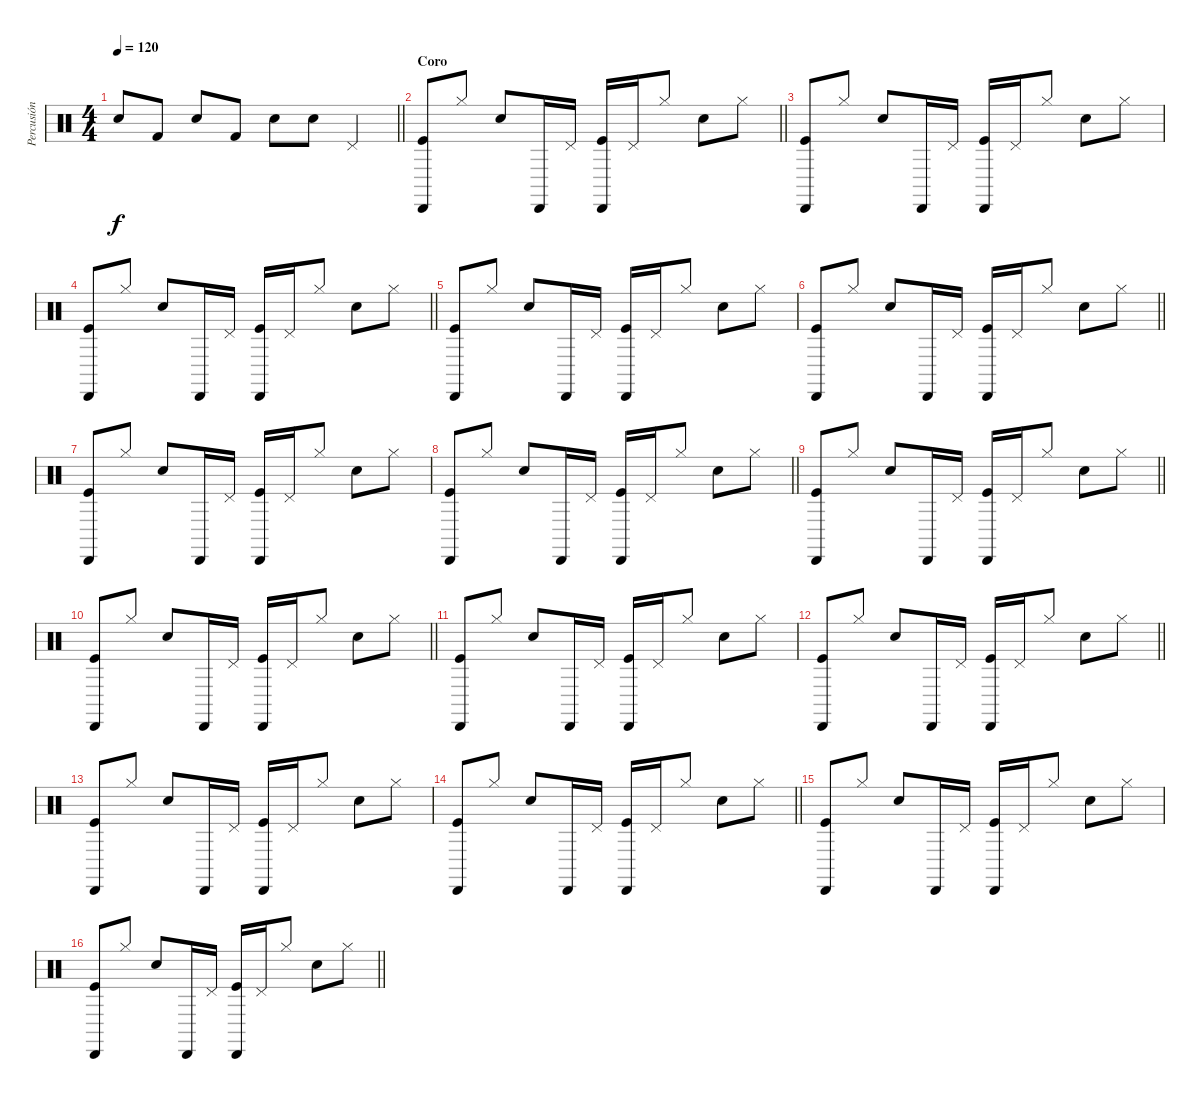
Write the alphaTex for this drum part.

\track ("Percusión" "Percusión") {instrument percussion}
\staff {score}
\articulation defaults
\ts (4 4)
\tempo 120
\clef neutral
\barLineRight lightlight
\ks c "Electric Snare (hit)".8{dy f} "Kick (hit) 2".8 "Electric Snare (hit)".8 "Kick (hit) 2".8 "Electric Snare (hit)".8 "Electric Snare (hit)".8 "Pedal Hi-Hat (hit)".4
|
\section ("" "Coro")
\barLineRight lightlight
("Kick (hit)" "Cabasa (hit)").8 "Hi-Hat (closed)".8 "Electric Snare (hit)".8 "Cabasa (hit)".16 "Pedal Hi-Hat (hit)".16 ("Kick (hit)" "Cabasa (hit)").16 "Pedal Hi-Hat (hit)".16 "Hi-Hat (closed)".8 "Electric Snare (hit)".8 "Hi-Hat (closed)".8 |
("Kick (hit)" "Cabasa (hit)").8 "Hi-Hat (closed)".8 "Electric Snare (hit)".8 "Cabasa (hit)".16 "Pedal Hi-Hat (hit)".16 ("Kick (hit)" "Cabasa (hit)").16 "Pedal Hi-Hat (hit)".16 "Hi-Hat (closed)".8 "Electric Snare (hit)".8 "Hi-Hat (closed)".8 |
\barLineRight lightlight
("Kick (hit)" "Cabasa (hit)").8 "Hi-Hat (closed)".8 "Electric Snare (hit)".8 "Cabasa (hit)".16 "Pedal Hi-Hat (hit)".16 ("Kick (hit)" "Cabasa (hit)").16 "Pedal Hi-Hat (hit)".16 "Hi-Hat (closed)".8 "Electric Snare (hit)".8 "Hi-Hat (closed)".8 |
("Kick (hit)" "Cabasa (hit)").8 "Hi-Hat (closed)".8 "Electric Snare (hit)".8 "Cabasa (hit)".16 "Pedal Hi-Hat (hit)".16 ("Kick (hit)" "Cabasa (hit)").16 "Pedal Hi-Hat (hit)".16 "Hi-Hat (closed)".8 "Electric Snare (hit)".8 "Hi-Hat (closed)".8 |
\barLineRight lightlight
("Kick (hit)" "Cabasa (hit)").8 "Hi-Hat (closed)".8 "Electric Snare (hit)".8 "Cabasa (hit)".16 "Pedal Hi-Hat (hit)".16 ("Kick (hit)" "Cabasa (hit)").16 "Pedal Hi-Hat (hit)".16 "Hi-Hat (closed)".8 "Electric Snare (hit)".8 "Hi-Hat (closed)".8 |
("Kick (hit)" "Cabasa (hit)").8 "Hi-Hat (closed)".8 "Electric Snare (hit)".8 "Cabasa (hit)".16 "Pedal Hi-Hat (hit)".16 ("Kick (hit)" "Cabasa (hit)").16 "Pedal Hi-Hat (hit)".16 "Hi-Hat (closed)".8 "Electric Snare (hit)".8 "Hi-Hat (closed)".8 |
\barLineRight lightlight
("Kick (hit)" "Cabasa (hit)").8 "Hi-Hat (closed)".8 "Electric Snare (hit)".8 "Cabasa (hit)".16 "Pedal Hi-Hat (hit)".16 ("Kick (hit)" "Cabasa (hit)").16 "Pedal Hi-Hat (hit)".16 "Hi-Hat (closed)".8 "Electric Snare (hit)".8 "Hi-Hat (closed)".8 |
\barLineRight lightlight
("Kick (hit)" "Cabasa (hit)").8 "Hi-Hat (closed)".8 "Electric Snare (hit)".8 "Cabasa (hit)".16 "Pedal Hi-Hat (hit)".16 ("Kick (hit)" "Cabasa (hit)").16 "Pedal Hi-Hat (hit)".16 "Hi-Hat (closed)".8 "Electric Snare (hit)".8 "Hi-Hat (closed)".8 |
\section ("" "")
\barLineRight lightlight
("Kick (hit)" "Cabasa (hit)").8 "Hi-Hat (closed)".8 "Electric Snare (hit)".8 "Cabasa (hit)".16 "Pedal Hi-Hat (hit)".16 ("Kick (hit)" "Cabasa (hit)").16 "Pedal Hi-Hat (hit)".16 "Hi-Hat (closed)".8 "Electric Snare (hit)".8 "Hi-Hat (closed)".8 |
("Kick (hit)" "Cabasa (hit)").8 "Hi-Hat (closed)".8 "Electric Snare (hit)".8 "Cabasa (hit)".16 "Pedal Hi-Hat (hit)".16 ("Kick (hit)" "Cabasa (hit)").16 "Pedal Hi-Hat (hit)".16 "Hi-Hat (closed)".8 "Electric Snare (hit)".8 "Hi-Hat (closed)".8 |
\barLineRight lightlight
("Kick (hit)" "Cabasa (hit)").8 "Hi-Hat (closed)".8 "Electric Snare (hit)".8 "Cabasa (hit)".16 "Pedal Hi-Hat (hit)".16 ("Kick (hit)" "Cabasa (hit)").16 "Pedal Hi-Hat (hit)".16 "Hi-Hat (closed)".8 "Electric Snare (hit)".8 "Hi-Hat (closed)".8 |
("Kick (hit)" "Cabasa (hit)").8 "Hi-Hat (closed)".8 "Electric Snare (hit)".8 "Cabasa (hit)".16 "Pedal Hi-Hat (hit)".16 ("Kick (hit)" "Cabasa (hit)").16 "Pedal Hi-Hat (hit)".16 "Hi-Hat (closed)".8 "Electric Snare (hit)".8 "Hi-Hat (closed)".8 |
\barLineRight lightlight
("Kick (hit)" "Cabasa (hit)").8 "Hi-Hat (closed)".8 "Electric Snare (hit)".8 "Cabasa (hit)".16 "Pedal Hi-Hat (hit)".16 ("Kick (hit)" "Cabasa (hit)").16 "Pedal Hi-Hat (hit)".16 "Hi-Hat (closed)".8 "Electric Snare (hit)".8 "Hi-Hat (closed)".8 |
("Kick (hit)" "Cabasa (hit)").8 "Hi-Hat (closed)".8 "Electric Snare (hit)".8 "Cabasa (hit)".16 "Pedal Hi-Hat (hit)".16 ("Kick (hit)" "Cabasa (hit)").16 "Pedal Hi-Hat (hit)".16 "Hi-Hat (closed)".8 "Electric Snare (hit)".8 "Hi-Hat (closed)".8 |
\barLineRight lightlight
("Kick (hit)" "Cabasa (hit)").8 "Hi-Hat (closed)".8 "Electric Snare (hit)".8 "Cabasa (hit)".16 "Pedal Hi-Hat (hit)".16 ("Kick (hit)" "Cabasa (hit)").16 "Pedal Hi-Hat (hit)".16 "Hi-Hat (closed)".8 "Electric Snare (hit)".8 "Hi-Hat (closed)".8
